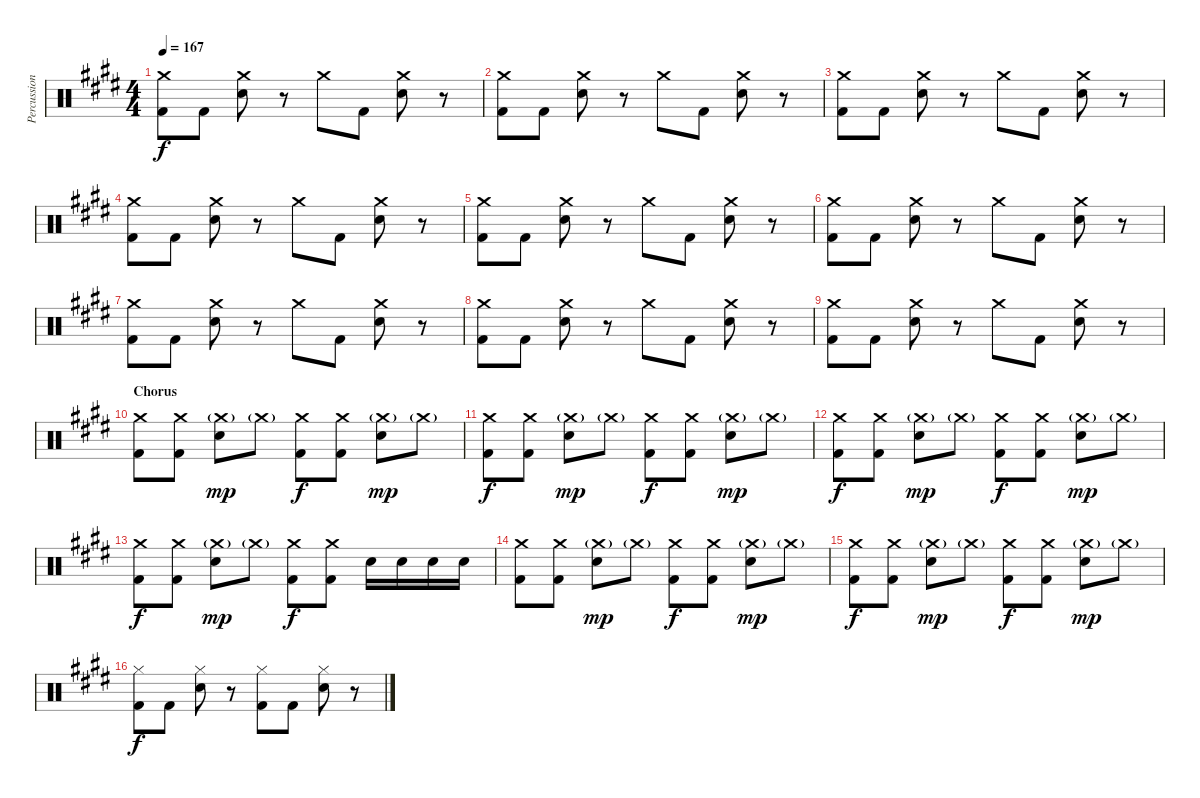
\track ("Percussion" "Percussion") {instrument percussion}
\staff {score}
\articulation defaults
\ts (4 4)
\tempo 167
\clef neutral
\ks e
("Crash medium (hit)" "Kick (hit) 2").8{dy f} "Kick (hit) 2".8 ("Crash medium (hit)" "Electric Snare (hit)").8 r.8 "Crash medium (hit)".8 "Kick (hit) 2".8 ("Crash medium (hit)" "Electric Snare (hit)").8 r.8 |
("Crash medium (hit)" "Kick (hit) 2").8 "Kick (hit) 2".8 ("Crash medium (hit)" "Electric Snare (hit)").8 r.8 "Crash medium (hit)".8 "Kick (hit) 2".8 ("Crash medium (hit)" "Electric Snare (hit)").8 r.8 |
("Crash medium (hit)" "Kick (hit) 2").8 "Kick (hit) 2".8 ("Crash medium (hit)" "Electric Snare (hit)").8 r.8 "Crash medium (hit)".8 "Kick (hit) 2".8 ("Crash medium (hit)" "Electric Snare (hit)").8 r.8 |
("Crash medium (hit)" "Kick (hit) 2").8 "Kick (hit) 2".8 ("Crash medium (hit)" "Electric Snare (hit)").8 r.8 "Crash medium (hit)".8 "Kick (hit) 2".8 ("Crash medium (hit)" "Electric Snare (hit)").8 r.8 |
("Crash medium (hit)" "Kick (hit) 2").8 "Kick (hit) 2".8 ("Crash medium (hit)" "Electric Snare (hit)").8 r.8 "Crash medium (hit)".8 "Kick (hit) 2".8 ("Crash medium (hit)" "Electric Snare (hit)").8 r.8 |
("Crash medium (hit)" "Kick (hit) 2").8 "Kick (hit) 2".8 ("Crash medium (hit)" "Electric Snare (hit)").8 r.8 "Crash medium (hit)".8 "Kick (hit) 2".8 ("Crash medium (hit)" "Electric Snare (hit)").8 r.8 |
("Crash medium (hit)" "Kick (hit) 2").8 "Kick (hit) 2".8 ("Crash medium (hit)" "Electric Snare (hit)").8 r.8 "Crash medium (hit)".8 "Kick (hit) 2".8 ("Crash medium (hit)" "Electric Snare (hit)").8 r.8 |
("Crash medium (hit)" "Kick (hit) 2").8 "Kick (hit) 2".8 ("Crash medium (hit)" "Electric Snare (hit)").8 r.8 "Crash medium (hit)".8 "Kick (hit) 2".8 ("Crash medium (hit)" "Electric Snare (hit)").8 r.8 |
("Crash medium (hit)" "Kick (hit) 2").8 "Kick (hit) 2".8 ("Crash medium (hit)" "Electric Snare (hit)").8 r.8 "Crash medium (hit)".8 "Kick (hit) 2".8 ("Crash medium (hit)" "Electric Snare (hit)").8 r.8 |
\section ("" "Chorus")
("Crash medium (hit)" "Kick (hit) 2").8 ("Crash medium (hit)" "Kick (hit) 2").8 ("Crash medium (hit)"{g} "Electric Snare (hit)").8{dy mp} "Crash medium (hit)"{g}.8 ("Crash medium (hit)" "Kick (hit) 2").8{dy f} ("Crash medium (hit)" "Kick (hit) 2").8 ("Crash medium (hit)"{g} "Electric Snare (hit)").8{dy mp} "Crash medium (hit)"{g}.8 |
("Crash medium (hit)" "Kick (hit) 2").8{dy f} ("Crash medium (hit)" "Kick (hit) 2").8 ("Crash medium (hit)"{g} "Electric Snare (hit)").8{dy mp} "Crash medium (hit)"{g}.8 ("Crash medium (hit)" "Kick (hit) 2").8{dy f} ("Crash medium (hit)" "Kick (hit) 2").8 ("Crash medium (hit)"{g} "Electric Snare (hit)").8{dy mp} "Crash medium (hit)"{g}.8 |
("Crash medium (hit)" "Kick (hit) 2").8{dy f} ("Crash medium (hit)" "Kick (hit) 2").8 ("Crash medium (hit)"{g} "Electric Snare (hit)").8{dy mp} "Crash medium (hit)"{g}.8 ("Crash medium (hit)" "Kick (hit) 2").8{dy f} ("Crash medium (hit)" "Kick (hit) 2").8 ("Crash medium (hit)"{g} "Electric Snare (hit)").8{dy mp} "Crash medium (hit)"{g}.8 |
("Crash medium (hit)" "Kick (hit) 2").8{dy f} ("Crash medium (hit)" "Kick (hit) 2").8 ("Crash medium (hit)"{g} "Electric Snare (hit)").8{dy mp} "Crash medium (hit)"{g}.8 ("Crash medium (hit)" "Kick (hit) 2").8{dy f} ("Crash medium (hit)" "Kick (hit) 2").8 "Electric Snare (hit)".16 "Electric Snare (hit)".16 "Electric Snare (hit)".16 "Electric Snare (hit)".16 |
("Crash medium (hit)" "Kick (hit) 2").8 ("Crash medium (hit)" "Kick (hit) 2").8 ("Crash medium (hit)"{g} "Electric Snare (hit)").8{dy mp} "Crash medium (hit)"{g}.8 ("Crash medium (hit)" "Kick (hit) 2").8{dy f} ("Crash medium (hit)" "Kick (hit) 2").8 ("Crash medium (hit)"{g} "Electric Snare (hit)").8{dy mp} "Crash medium (hit)"{g}.8 |
("Crash medium (hit)" "Kick (hit) 2").8{dy f} ("Crash medium (hit)" "Kick (hit) 2").8 ("Crash medium (hit)"{g} "Electric Snare (hit)").8{dy mp} "Crash medium (hit)"{g}.8 ("Crash medium (hit)" "Kick (hit) 2").8{dy f} ("Crash medium (hit)" "Kick (hit) 2").8 ("Crash medium (hit)"{g} "Electric Snare (hit)").8{dy mp} "Crash medium (hit)"{g}.8 |
("Hi-Hat (closed)" "Kick (hit) 2").8{dy f} "Kick (hit) 2".8 ("Hi-Hat (closed)" "Electric Snare (hit)").8 r.8 ("Hi-Hat (closed)" "Kick (hit) 2").8 "Kick (hit) 2".8 ("Hi-Hat (closed)" "Electric Snare (hit)").8 r.8
